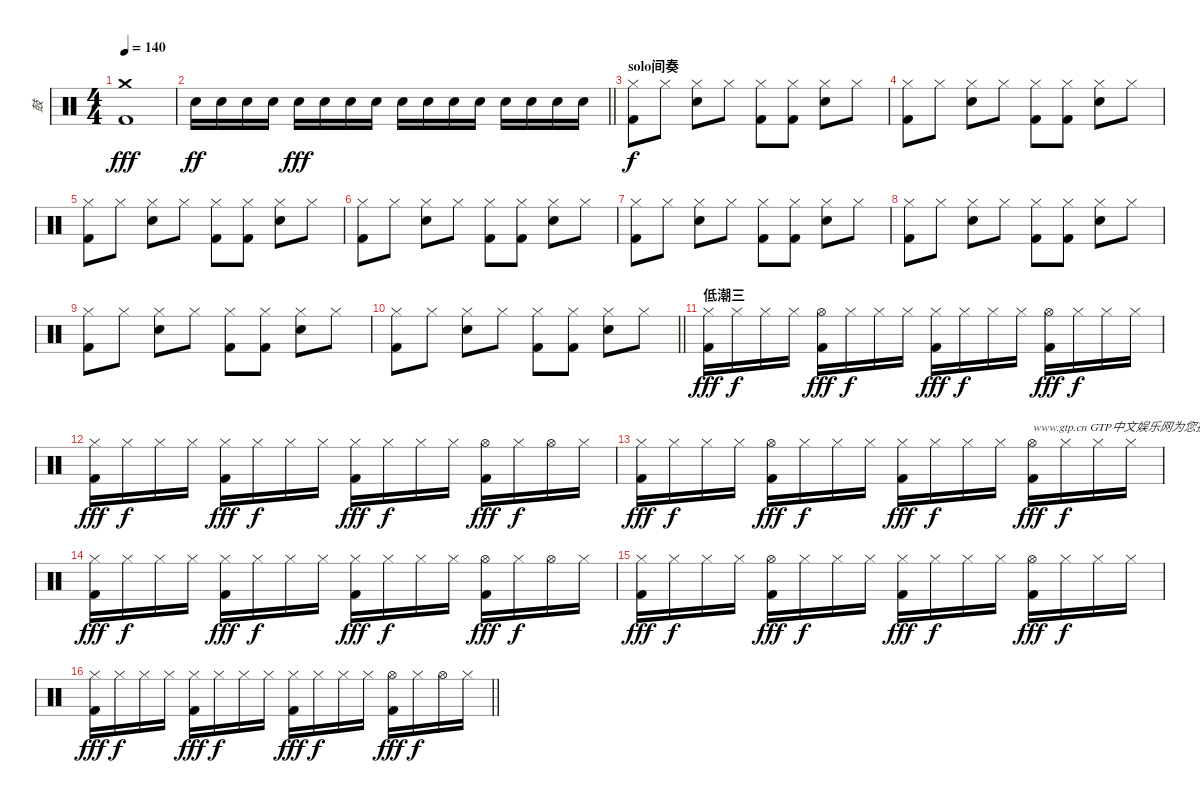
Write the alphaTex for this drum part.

\track ("鼓" "鼓") {instrument percussion}
\staff {score}
\articulation defaults
\ts (4 4)
\tempo 140
\clef neutral
\ks c
("Crash medium (hit)" "Kick (hit) 2").1{dy fff} |
\barLineRight lightlight "Snare (hit) 2".16{dy ff} "Snare (hit) 2".16 "Snare (hit) 2".16 "Snare (hit) 2".16 "Snare (hit) 2".16{dy fff} "Snare (hit) 2".16 "Snare (hit) 2".16 "Snare (hit) 2".16 "Snare (hit) 2".16 "Snare (hit) 2".16 "Snare (hit) 2".16 "Snare (hit) 2".16 "Snare (hit) 2".16 "Snare (hit) 2".16 "Snare (hit) 2".16 "Snare (hit) 2".16
|
\section ("" "solo间奏")
("Hi-Hat (closed)" "Kick (hit) 2").8{dy f} "Hi-Hat (closed)".8 ("Hi-Hat (closed)" "Snare (hit) 2").8 "Hi-Hat (closed)".8 ("Hi-Hat (closed)" "Kick (hit) 2").8 ("Hi-Hat (closed)" "Kick (hit) 2").8 ("Hi-Hat (closed)" "Snare (hit) 2").8 "Hi-Hat (closed)".8 |
("Hi-Hat (closed)" "Kick (hit) 2").8 "Hi-Hat (closed)".8 ("Hi-Hat (closed)" "Snare (hit) 2").8 "Hi-Hat (closed)".8 ("Hi-Hat (closed)" "Kick (hit) 2").8 ("Hi-Hat (closed)" "Kick (hit) 2").8 ("Hi-Hat (closed)" "Snare (hit) 2").8 "Hi-Hat (closed)".8 |
("Hi-Hat (closed)" "Kick (hit) 2").8 "Hi-Hat (closed)".8 ("Hi-Hat (closed)" "Snare (hit) 2").8 "Hi-Hat (closed)".8 ("Hi-Hat (closed)" "Kick (hit) 2").8 ("Hi-Hat (closed)" "Kick (hit) 2").8 ("Hi-Hat (closed)" "Snare (hit) 2").8 "Hi-Hat (closed)".8 |
("Hi-Hat (closed)" "Kick (hit) 2").8 "Hi-Hat (closed)".8 ("Hi-Hat (closed)" "Snare (hit) 2").8 "Hi-Hat (closed)".8 ("Hi-Hat (closed)" "Kick (hit) 2").8 ("Hi-Hat (closed)" "Kick (hit) 2").8 ("Hi-Hat (closed)" "Snare (hit) 2").8 "Hi-Hat (closed)".8 |
("Hi-Hat (closed)" "Kick (hit) 2").8 "Hi-Hat (closed)".8 ("Hi-Hat (closed)" "Snare (hit) 2").8 "Hi-Hat (closed)".8 ("Hi-Hat (closed)" "Kick (hit) 2").8 ("Hi-Hat (closed)" "Kick (hit) 2").8 ("Hi-Hat (closed)" "Snare (hit) 2").8 "Hi-Hat (closed)".8 |
("Hi-Hat (closed)" "Kick (hit) 2").8 "Hi-Hat (closed)".8 ("Hi-Hat (closed)" "Snare (hit) 2").8 "Hi-Hat (closed)".8 ("Hi-Hat (closed)" "Kick (hit) 2").8 ("Hi-Hat (closed)" "Kick (hit) 2").8 ("Hi-Hat (closed)" "Snare (hit) 2").8 "Hi-Hat (closed)".8 |
("Hi-Hat (closed)" "Kick (hit) 2").8 "Hi-Hat (closed)".8 ("Hi-Hat (closed)" "Snare (hit) 2").8 "Hi-Hat (closed)".8 ("Hi-Hat (closed)" "Kick (hit) 2").8 ("Hi-Hat (closed)" "Kick (hit) 2").8 ("Hi-Hat (closed)" "Snare (hit) 2").8 "Hi-Hat (closed)".8 |
\barLineRight lightlight
("Hi-Hat (closed)" "Kick (hit) 2").8 "Hi-Hat (closed)".8 ("Hi-Hat (closed)" "Snare (hit) 2").8 "Hi-Hat (closed)".8 ("Hi-Hat (closed)" "Kick (hit) 2").8 ("Hi-Hat (closed)" "Kick (hit) 2").8 ("Hi-Hat (closed)" "Snare (hit) 2").8 "Hi-Hat (closed)".8 |
\section ("" "低潮三")
("Hi-Hat (closed)" "Kick (hit) 2").16{dy fff} "Hi-Hat (closed)".16{dy f} "Hi-Hat (closed)".16 "Hi-Hat (closed)".16 ("Hi-Hat (open)" "Kick (hit) 2").16{dy fff} "Hi-Hat (closed)".16{dy f} "Hi-Hat (closed)".16 "Hi-Hat (closed)".16 ("Hi-Hat (closed)" "Kick (hit) 2").16{dy fff} "Hi-Hat (closed)".16{dy f} "Hi-Hat (closed)".16 "Hi-Hat (closed)".16 ("Hi-Hat (open)" "Kick (hit) 2").16{dy fff} "Hi-Hat (closed)".16{dy f} "Hi-Hat (closed)".16 "Hi-Hat (closed)".16 |
("Hi-Hat (closed)" "Kick (hit) 2").16{dy fff} "Hi-Hat (closed)".16{dy f} "Hi-Hat (closed)".16 "Hi-Hat (closed)".16 ("Hi-Hat (closed)" "Kick (hit) 2").16{dy fff} "Hi-Hat (closed)".16{dy f} "Hi-Hat (closed)".16 "Hi-Hat (closed)".16 ("Hi-Hat (closed)" "Kick (hit) 2").16{dy fff} "Hi-Hat (closed)".16{dy f} "Hi-Hat (closed)".16 "Hi-Hat (closed)".16 ("Hi-Hat (open)" "Kick (hit) 2").16{dy fff} "Hi-Hat (closed)".16{dy f} "Hi-Hat (open)".16 "Hi-Hat (closed)".16 |
("Hi-Hat (closed)" "Kick (hit) 2").16{dy fff} "Hi-Hat (closed)".16{dy f} "Hi-Hat (closed)".16 "Hi-Hat (closed)".16 ("Hi-Hat (open)" "Kick (hit) 2").16{dy fff} "Hi-Hat (closed)".16{dy f} "Hi-Hat (closed)".16 "Hi-Hat (closed)".16 ("Hi-Hat (closed)" "Kick (hit) 2").16{dy fff} "Hi-Hat (closed)".16{dy f} "Hi-Hat (closed)".16 "Hi-Hat (closed)".16 ("Hi-Hat (open)" "Kick (hit) 2").16{txt "www.gtp.cn GTP中文娱乐网为您提供优秀的谱子" dy fff} "Hi-Hat (closed)".16{dy f} "Hi-Hat (closed)".16 "Hi-Hat (closed)".16 |
("Hi-Hat (closed)" "Kick (hit) 2").16{dy fff} "Hi-Hat (closed)".16{dy f} "Hi-Hat (closed)".16 "Hi-Hat (closed)".16 ("Hi-Hat (closed)" "Kick (hit) 2").16{dy fff} "Hi-Hat (closed)".16{dy f} "Hi-Hat (closed)".16 "Hi-Hat (closed)".16 ("Hi-Hat (closed)" "Kick (hit) 2").16{dy fff} "Hi-Hat (closed)".16{dy f} "Hi-Hat (closed)".16 "Hi-Hat (closed)".16 ("Hi-Hat (open)" "Kick (hit) 2").16{dy fff} "Hi-Hat (closed)".16{dy f} "Hi-Hat (open)".16 "Hi-Hat (closed)".16 |
("Hi-Hat (closed)" "Kick (hit) 2").16{dy fff} "Hi-Hat (closed)".16{dy f} "Hi-Hat (closed)".16 "Hi-Hat (closed)".16 ("Hi-Hat (open)" "Kick (hit) 2").16{dy fff} "Hi-Hat (closed)".16{dy f} "Hi-Hat (closed)".16 "Hi-Hat (closed)".16 ("Hi-Hat (closed)" "Kick (hit) 2").16{dy fff} "Hi-Hat (closed)".16{dy f} "Hi-Hat (closed)".16 "Hi-Hat (closed)".16 ("Hi-Hat (open)" "Kick (hit) 2").16{dy fff} "Hi-Hat (closed)".16{dy f} "Hi-Hat (closed)".16 "Hi-Hat (closed)".16 |
\barLineRight lightlight
("Hi-Hat (closed)" "Kick (hit) 2").16{dy fff} "Hi-Hat (closed)".16{dy f} "Hi-Hat (closed)".16 "Hi-Hat (closed)".16 ("Hi-Hat (closed)" "Kick (hit) 2").16{dy fff} "Hi-Hat (closed)".16{dy f} "Hi-Hat (closed)".16 "Hi-Hat (closed)".16 ("Hi-Hat (closed)" "Kick (hit) 2").16{dy fff} "Hi-Hat (closed)".16{dy f} "Hi-Hat (closed)".16 "Hi-Hat (closed)".16 ("Hi-Hat (open)" "Kick (hit) 2").16{dy fff} "Hi-Hat (closed)".16{dy f} "Hi-Hat (open)".16 "Hi-Hat (closed)".16
